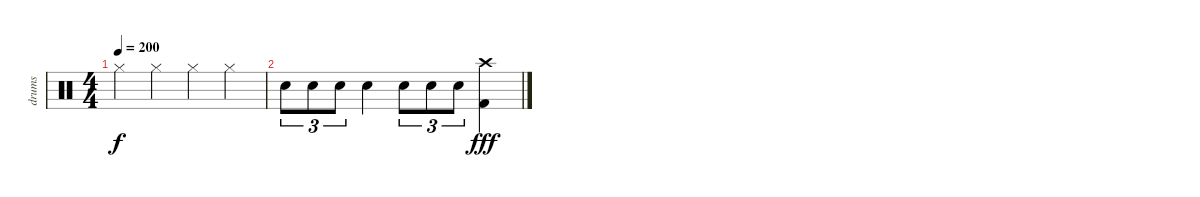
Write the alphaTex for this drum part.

\track ("drums" "drums") {instrument percussion}
\staff {score}
\articulation defaults
\ts (4 4)
\tempo 200
\clef neutral
\ks c "Hi-Hat (closed)".4{dy f} "Hi-Hat (closed)".4 "Hi-Hat (closed)".4 "Hi-Hat (closed)".4
|
"Snare (hit) 2".8{tu (3 2)} "Snare (hit) 2".8{tu (3 2)} "Snare (hit) 2".8{tu (3 2)} "Snare (hit) 2".4 "Snare (hit) 2".8{tu (3 2)} "Snare (hit) 2".8{tu (3 2)} "Snare (hit) 2".8{tu (3 2)} ("Crash high (hit)" "Kick (hit) 2").4{dy fff}
